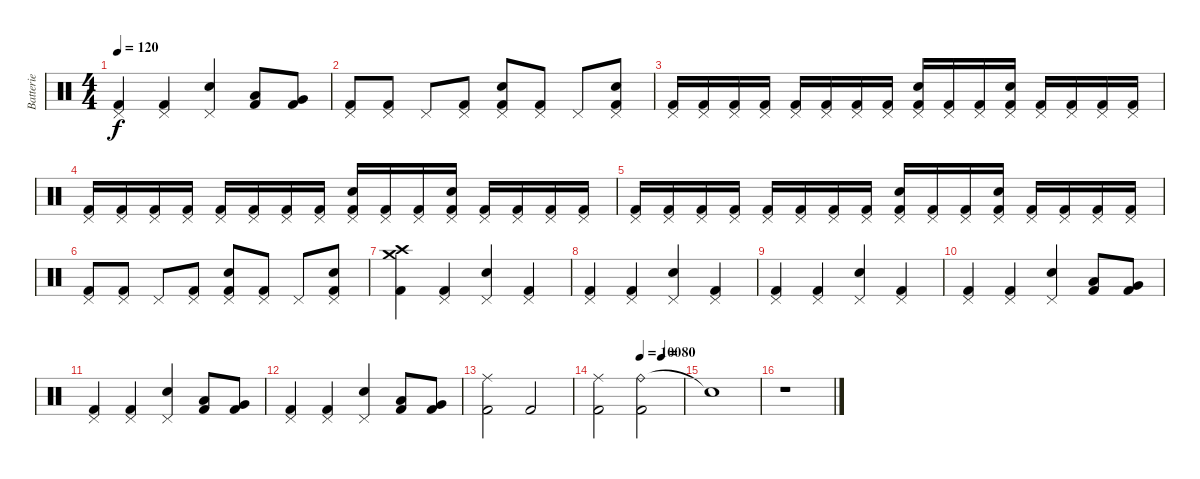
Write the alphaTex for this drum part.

\track ("Batterie" "Batterie") {instrument percussion}
\staff {score}
\articulation defaults
\ts (4 4)
\tempo 120
\clef neutral
\ks c
("Pedal Hi-Hat (hit)" "Kick (hit) 2").4{dy f} ("Pedal Hi-Hat (hit)" "Kick (hit) 2").4 ("Pedal Hi-Hat (hit)" "Electric Snare (hit)").4 ("Low Tom (hit)" "Kick (hit) 2").8 ("Very Low Tom (hit)" "Kick (hit) 2").8 |
("Pedal Hi-Hat (hit)" "Kick (hit) 2").8 ("Pedal Hi-Hat (hit)" "Kick (hit) 2").8 "Pedal Hi-Hat (hit)".8 ("Pedal Hi-Hat (hit)" "Kick (hit) 2").8 ("Pedal Hi-Hat (hit)" "Electric Snare (hit)" "Kick (hit) 2").8 ("Pedal Hi-Hat (hit)" "Kick (hit) 2").8 "Pedal Hi-Hat (hit)".8 ("Pedal Hi-Hat (hit)" "Electric Snare (hit)" "Kick (hit) 2").8 |
("Pedal Hi-Hat (hit)" "Kick (hit) 2").16 ("Pedal Hi-Hat (hit)" "Kick (hit) 2").16 ("Pedal Hi-Hat (hit)" "Kick (hit) 2").16 ("Pedal Hi-Hat (hit)" "Kick (hit) 2").16 ("Pedal Hi-Hat (hit)" "Kick (hit) 2").16 ("Pedal Hi-Hat (hit)" "Kick (hit) 2").16 ("Pedal Hi-Hat (hit)" "Kick (hit) 2").16 ("Pedal Hi-Hat (hit)" "Kick (hit) 2").16 ("Pedal Hi-Hat (hit)" "Electric Snare (hit)" "Kick (hit) 2").16 ("Pedal Hi-Hat (hit)" "Kick (hit) 2").16 ("Pedal Hi-Hat (hit)" "Kick (hit) 2").16 ("Pedal Hi-Hat (hit)" "Electric Snare (hit)" "Kick (hit) 2").16 ("Pedal Hi-Hat (hit)" "Kick (hit) 2").16 ("Pedal Hi-Hat (hit)" "Kick (hit) 2").16 ("Pedal Hi-Hat (hit)" "Kick (hit) 2").16 ("Pedal Hi-Hat (hit)" "Kick (hit) 2").16 |
("Pedal Hi-Hat (hit)" "Kick (hit) 2").16 ("Pedal Hi-Hat (hit)" "Kick (hit) 2").16 ("Pedal Hi-Hat (hit)" "Kick (hit) 2").16 ("Pedal Hi-Hat (hit)" "Kick (hit) 2").16 ("Pedal Hi-Hat (hit)" "Kick (hit) 2").16 ("Pedal Hi-Hat (hit)" "Kick (hit) 2").16 ("Pedal Hi-Hat (hit)" "Kick (hit) 2").16 ("Pedal Hi-Hat (hit)" "Kick (hit) 2").16 ("Pedal Hi-Hat (hit)" "Electric Snare (hit)" "Kick (hit) 2").16 ("Pedal Hi-Hat (hit)" "Kick (hit) 2").16 ("Pedal Hi-Hat (hit)" "Kick (hit) 2").16 ("Pedal Hi-Hat (hit)" "Electric Snare (hit)" "Kick (hit) 2").16 ("Pedal Hi-Hat (hit)" "Kick (hit) 2").16 ("Pedal Hi-Hat (hit)" "Kick (hit) 2").16 ("Pedal Hi-Hat (hit)" "Kick (hit) 2").16 ("Pedal Hi-Hat (hit)" "Kick (hit) 2").16 |
("Pedal Hi-Hat (hit)" "Kick (hit) 2").16 ("Pedal Hi-Hat (hit)" "Kick (hit) 2").16 ("Pedal Hi-Hat (hit)" "Kick (hit) 2").16 ("Pedal Hi-Hat (hit)" "Kick (hit) 2").16 ("Pedal Hi-Hat (hit)" "Kick (hit) 2").16 ("Pedal Hi-Hat (hit)" "Kick (hit) 2").16 ("Pedal Hi-Hat (hit)" "Kick (hit) 2").16 ("Pedal Hi-Hat (hit)" "Kick (hit) 2").16 ("Pedal Hi-Hat (hit)" "Electric Snare (hit)" "Kick (hit) 2").16 ("Pedal Hi-Hat (hit)" "Kick (hit) 2").16 ("Pedal Hi-Hat (hit)" "Kick (hit) 2").16 ("Pedal Hi-Hat (hit)" "Electric Snare (hit)" "Kick (hit) 2").16 ("Pedal Hi-Hat (hit)" "Kick (hit) 2").16 ("Pedal Hi-Hat (hit)" "Kick (hit) 2").16 ("Pedal Hi-Hat (hit)" "Kick (hit) 2").16 ("Pedal Hi-Hat (hit)" "Kick (hit) 2").16 |
("Pedal Hi-Hat (hit)" "Kick (hit) 2").8 ("Pedal Hi-Hat (hit)" "Kick (hit) 2").8 "Pedal Hi-Hat (hit)".8 ("Pedal Hi-Hat (hit)" "Kick (hit) 2").8 ("Pedal Hi-Hat (hit)" "Electric Snare (hit)" "Kick (hit) 2").8 ("Pedal Hi-Hat (hit)" "Kick (hit) 2").8 "Pedal Hi-Hat (hit)".8 ("Pedal Hi-Hat (hit)" "Electric Snare (hit)" "Kick (hit) 2").8 |
("Crash high (hit)" "Crash medium (hit)" "Kick (hit) 2").4 ("Pedal Hi-Hat (hit)" "Kick (hit) 2").4 ("Pedal Hi-Hat (hit)" "Electric Snare (hit)").4 ("Pedal Hi-Hat (hit)" "Kick (hit) 2").4 |
("Pedal Hi-Hat (hit)" "Kick (hit) 2").4 ("Pedal Hi-Hat (hit)" "Kick (hit) 2").4 ("Pedal Hi-Hat (hit)" "Electric Snare (hit)").4 ("Pedal Hi-Hat (hit)" "Kick (hit) 2").4 |
("Pedal Hi-Hat (hit)" "Kick (hit) 2").4 ("Pedal Hi-Hat (hit)" "Kick (hit) 2").4 ("Pedal Hi-Hat (hit)" "Electric Snare (hit)").4 ("Pedal Hi-Hat (hit)" "Kick (hit) 2").4 |
("Pedal Hi-Hat (hit)" "Kick (hit) 2").4 ("Pedal Hi-Hat (hit)" "Kick (hit) 2").4 ("Pedal Hi-Hat (hit)" "Electric Snare (hit)").4 ("Low Tom (hit)" "Kick (hit) 2").8 ("Very Low Tom (hit)" "Kick (hit) 2").8 |
("Pedal Hi-Hat (hit)" "Kick (hit) 2").4 ("Pedal Hi-Hat (hit)" "Kick (hit) 2").4 ("Pedal Hi-Hat (hit)" "Electric Snare (hit)").4 ("Low Tom (hit)" "Kick (hit) 2").8 ("Very Low Tom (hit)" "Kick (hit) 2").8 |
("Pedal Hi-Hat (hit)" "Kick (hit) 2").4 ("Pedal Hi-Hat (hit)" "Kick (hit) 2").4 ("Pedal Hi-Hat (hit)" "Electric Snare (hit)").4 ("Low Tom (hit)" "Kick (hit) 2").8 ("Very Low Tom (hit)" "Kick (hit) 2").8 |
("Ride (middle)" "Kick (hit) 2").2 "Kick (hit) 2".2 |
\tempo (100 0.5)
\tempo (80 0.75)
("Ride (middle)" "Kick (hit) 2").2 ("Ride (bell)" "Kick (hit) 2").2 |
"Snare (hit)"{t}.1 |
r.1
